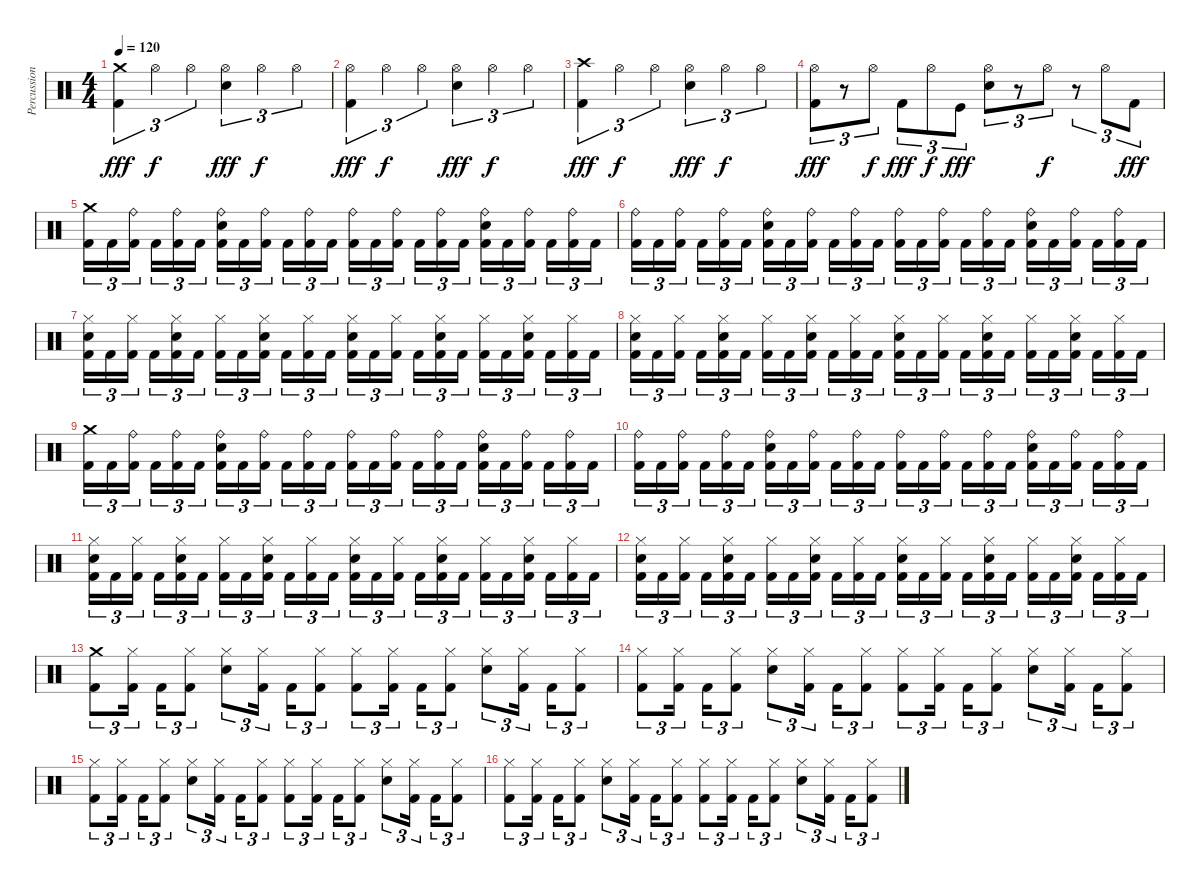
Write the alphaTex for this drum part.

\track ("Percussions" "Percussion") {instrument percussion}
\staff {score}
\articulation defaults
\ts (4 4)
\tempo 120
\clef neutral
\ks c
("Crash medium (hit)" "Kick (hit) 2").4{tu (3 2) dy fff} "Hi-Hat (open)".4{tu (3 2) dy f} "Hi-Hat (open)".4{tu (3 2)} ("Hi-Hat (open)" "Snare (hit) 2").4{tu (3 2) dy fff} "Hi-Hat (open)".4{tu (3 2) dy f} "Hi-Hat (open)".4{tu (3 2)} |
("Hi-Hat (open)" "Kick (hit) 2").4{tu (3 2) dy fff} "Hi-Hat (open)".4{tu (3 2) dy f} "Hi-Hat (open)".4{tu (3 2)} ("Hi-Hat (open)" "Snare (hit) 2").4{tu (3 2) dy fff} "Hi-Hat (open)".4{tu (3 2) dy f} "Hi-Hat (open)".4{tu (3 2)} |
("Crash high (hit)" "Kick (hit) 2").4{tu (3 2) dy fff} "Hi-Hat (open)".4{tu (3 2) dy f} "Hi-Hat (open)".4{tu (3 2)} ("Hi-Hat (open)" "Snare (hit) 2").4{tu (3 2) dy fff} "Hi-Hat (open)".4{tu (3 2) dy f} "Hi-Hat (open)".4{tu (3 2)} |
("Hi-Hat (open)" "Kick (hit) 2").8{tu (3 2) dy fff} r.8{tu (3 2)} "Hi-Hat (open)".8{tu (3 2) dy f} "Kick (hit) 2".8{tu (3 2) dy fff} "Hi-Hat (open)".8{tu (3 2) dy f} "Kick (hit)".8{tu (3 2) dy fff} ("Hi-Hat (open)" "Snare (hit) 2").8{tu (3 2)} r.8{tu (3 2)} "Hi-Hat (open)".8{tu (3 2) dy f} r.8{tu (3 2)} "Hi-Hat (open)".8{tu (3 2)} "Kick (hit) 2".8{tu (3 2) dy fff} |
("Crash medium (hit)" "Kick (hit) 2").16{tu (3 2)} "Kick (hit) 2".16{tu (3 2)} ("Ride (bell)" "Kick (hit) 2").16{tu (3 2) beam splitsecondary} "Kick (hit) 2".16{tu (3 2)} ("Ride (bell)" "Kick (hit) 2").16{tu (3 2)} "Kick (hit) 2".16{tu (3 2)} ("Ride (bell)" "Snare (hit) 2" "Kick (hit) 2").16{tu (3 2)} "Kick (hit) 2".16{tu (3 2)} ("Ride (bell)" "Kick (hit) 2").16{tu (3 2) beam splitsecondary} "Kick (hit) 2".16{tu (3 2)} ("Ride (bell)" "Kick (hit) 2").16{tu (3 2)} "Kick (hit) 2".16{tu (3 2)} ("Ride (bell)" "Kick (hit) 2").16{tu (3 2)} "Kick (hit) 2".16{tu (3 2)} ("Ride (bell)" "Kick (hit) 2").16{tu (3 2) beam splitsecondary} "Kick (hit) 2".16{tu (3 2)} ("Ride (bell)" "Kick (hit) 2").16{tu (3 2)} "Kick (hit) 2".16{tu (3 2)} ("Ride (bell)" "Snare (hit) 2" "Kick (hit) 2").16{tu (3 2)} "Kick (hit) 2".16{tu (3 2)} ("Ride (bell)" "Kick (hit) 2").16{tu (3 2) beam splitsecondary} "Kick (hit) 2".16{tu (3 2)} ("Ride (bell)" "Kick (hit) 2").16{tu (3 2)} "Kick (hit) 2".16{tu (3 2)} |
("Ride (bell)" "Kick (hit) 2").16{tu (3 2)} "Kick (hit) 2".16{tu (3 2)} ("Ride (bell)" "Kick (hit) 2").16{tu (3 2) beam splitsecondary} "Kick (hit) 2".16{tu (3 2)} ("Ride (bell)" "Kick (hit) 2").16{tu (3 2)} "Kick (hit) 2".16{tu (3 2)} ("Ride (bell)" "Snare (hit) 2" "Kick (hit) 2").16{tu (3 2)} "Kick (hit) 2".16{tu (3 2)} ("Ride (bell)" "Kick (hit) 2").16{tu (3 2) beam splitsecondary} "Kick (hit) 2".16{tu (3 2)} ("Ride (bell)" "Kick (hit) 2").16{tu (3 2)} "Kick (hit) 2".16{tu (3 2)} ("Ride (bell)" "Kick (hit) 2").16{tu (3 2)} "Kick (hit) 2".16{tu (3 2)} ("Ride (bell)" "Kick (hit) 2").16{tu (3 2) beam splitsecondary} "Kick (hit) 2".16{tu (3 2)} ("Ride (bell)" "Kick (hit) 2").16{tu (3 2)} "Kick (hit) 2".16{tu (3 2)} ("Ride (bell)" "Snare (hit) 2" "Kick (hit) 2").16{tu (3 2)} "Kick (hit) 2".16{tu (3 2)} ("Ride (bell)" "Kick (hit) 2").16{tu (3 2) beam splitsecondary} "Kick (hit) 2".16{tu (3 2)} ("Ride (bell)" "Kick (hit) 2").16{tu (3 2)} "Kick (hit) 2".16{tu (3 2)} |
("Hi-Hat (closed)" "Snare (hit) 2" "Kick (hit) 2").16{tu (3 2)} "Kick (hit) 2".16{tu (3 2)} ("Hi-Hat (closed)" "Kick (hit) 2").16{tu (3 2) beam splitsecondary} "Kick (hit) 2".16{tu (3 2)} ("Hi-Hat (closed)" "Snare (hit) 2" "Kick (hit) 2").16{tu (3 2)} "Kick (hit) 2".16{tu (3 2)} ("Hi-Hat (closed)" "Kick (hit) 2").16{tu (3 2)} "Kick (hit) 2".16{tu (3 2)} ("Hi-Hat (closed)" "Snare (hit) 2" "Kick (hit) 2").16{tu (3 2) beam splitsecondary} "Kick (hit) 2".16{tu (3 2)} ("Hi-Hat (closed)" "Kick (hit) 2").16{tu (3 2)} "Kick (hit) 2".16{tu (3 2)} ("Hi-Hat (closed)" "Snare (hit) 2" "Kick (hit) 2").16{tu (3 2)} "Kick (hit) 2".16{tu (3 2)} ("Hi-Hat (closed)" "Kick (hit) 2").16{tu (3 2) beam splitsecondary} "Kick (hit) 2".16{tu (3 2)} ("Hi-Hat (closed)" "Snare (hit) 2" "Kick (hit) 2").16{tu (3 2)} "Kick (hit) 2".16{tu (3 2)} ("Hi-Hat (closed)" "Kick (hit) 2").16{tu (3 2)} "Kick (hit) 2".16{tu (3 2)} ("Hi-Hat (closed)" "Snare (hit) 2" "Kick (hit) 2").16{tu (3 2) beam splitsecondary} "Kick (hit) 2".16{tu (3 2)} ("Hi-Hat (closed)" "Kick (hit) 2").16{tu (3 2)} "Kick (hit) 2".16{tu (3 2)} |
("Hi-Hat (closed)" "Snare (hit) 2" "Kick (hit) 2").16{tu (3 2)} "Kick (hit) 2".16{tu (3 2)} ("Hi-Hat (closed)" "Kick (hit) 2").16{tu (3 2) beam splitsecondary} "Kick (hit) 2".16{tu (3 2)} ("Hi-Hat (closed)" "Snare (hit) 2" "Kick (hit) 2").16{tu (3 2)} "Kick (hit) 2".16{tu (3 2)} ("Hi-Hat (closed)" "Kick (hit) 2").16{tu (3 2)} "Kick (hit) 2".16{tu (3 2)} ("Hi-Hat (closed)" "Snare (hit) 2" "Kick (hit) 2").16{tu (3 2) beam splitsecondary} "Kick (hit) 2".16{tu (3 2)} ("Hi-Hat (closed)" "Kick (hit) 2").16{tu (3 2)} "Kick (hit) 2".16{tu (3 2)} ("Hi-Hat (closed)" "Snare (hit) 2" "Kick (hit) 2").16{tu (3 2)} "Kick (hit) 2".16{tu (3 2)} ("Hi-Hat (closed)" "Kick (hit) 2").16{tu (3 2) beam splitsecondary} "Kick (hit) 2".16{tu (3 2)} ("Hi-Hat (closed)" "Snare (hit) 2" "Kick (hit) 2").16{tu (3 2)} "Kick (hit) 2".16{tu (3 2)} ("Hi-Hat (closed)" "Kick (hit) 2").16{tu (3 2)} "Kick (hit) 2".16{tu (3 2)} ("Hi-Hat (closed)" "Snare (hit) 2" "Kick (hit) 2").16{tu (3 2) beam splitsecondary} "Kick (hit) 2".16{tu (3 2)} ("Hi-Hat (closed)" "Kick (hit) 2").16{tu (3 2)} "Kick (hit) 2".16{tu (3 2)} |
("Crash medium (hit)" "Kick (hit) 2").16{tu (3 2)} "Kick (hit) 2".16{tu (3 2)} ("Ride (bell)" "Kick (hit) 2").16{tu (3 2) beam splitsecondary} "Kick (hit) 2".16{tu (3 2)} ("Ride (bell)" "Kick (hit) 2").16{tu (3 2)} "Kick (hit) 2".16{tu (3 2)} ("Ride (bell)" "Snare (hit) 2" "Kick (hit) 2").16{tu (3 2)} "Kick (hit) 2".16{tu (3 2)} ("Ride (bell)" "Kick (hit) 2").16{tu (3 2) beam splitsecondary} "Kick (hit) 2".16{tu (3 2)} ("Ride (bell)" "Kick (hit) 2").16{tu (3 2)} "Kick (hit) 2".16{tu (3 2)} ("Ride (bell)" "Kick (hit) 2").16{tu (3 2)} "Kick (hit) 2".16{tu (3 2)} ("Ride (bell)" "Kick (hit) 2").16{tu (3 2) beam splitsecondary} "Kick (hit) 2".16{tu (3 2)} ("Ride (bell)" "Kick (hit) 2").16{tu (3 2)} "Kick (hit) 2".16{tu (3 2)} ("Ride (bell)" "Snare (hit) 2" "Kick (hit) 2").16{tu (3 2)} "Kick (hit) 2".16{tu (3 2)} ("Ride (bell)" "Kick (hit) 2").16{tu (3 2) beam splitsecondary} "Kick (hit) 2".16{tu (3 2)} ("Ride (bell)" "Kick (hit) 2").16{tu (3 2)} "Kick (hit) 2".16{tu (3 2)} |
("Ride (bell)" "Kick (hit) 2").16{tu (3 2)} "Kick (hit) 2".16{tu (3 2)} ("Ride (bell)" "Kick (hit) 2").16{tu (3 2) beam splitsecondary} "Kick (hit) 2".16{tu (3 2)} ("Ride (bell)" "Kick (hit) 2").16{tu (3 2)} "Kick (hit) 2".16{tu (3 2)} ("Ride (bell)" "Snare (hit) 2" "Kick (hit) 2").16{tu (3 2)} "Kick (hit) 2".16{tu (3 2)} ("Ride (bell)" "Kick (hit) 2").16{tu (3 2) beam splitsecondary} "Kick (hit) 2".16{tu (3 2)} ("Ride (bell)" "Kick (hit) 2").16{tu (3 2)} "Kick (hit) 2".16{tu (3 2)} ("Ride (bell)" "Kick (hit) 2").16{tu (3 2)} "Kick (hit) 2".16{tu (3 2)} ("Ride (bell)" "Kick (hit) 2").16{tu (3 2) beam splitsecondary} "Kick (hit) 2".16{tu (3 2)} ("Ride (bell)" "Kick (hit) 2").16{tu (3 2)} "Kick (hit) 2".16{tu (3 2)} ("Ride (bell)" "Snare (hit) 2" "Kick (hit) 2").16{tu (3 2)} "Kick (hit) 2".16{tu (3 2)} ("Ride (bell)" "Kick (hit) 2").16{tu (3 2) beam splitsecondary} "Kick (hit) 2".16{tu (3 2)} ("Ride (bell)" "Kick (hit) 2").16{tu (3 2)} "Kick (hit) 2".16{tu (3 2)} |
("Hi-Hat (closed)" "Snare (hit) 2" "Kick (hit) 2").16{tu (3 2)} "Kick (hit) 2".16{tu (3 2)} ("Hi-Hat (closed)" "Kick (hit) 2").16{tu (3 2) beam splitsecondary} "Kick (hit) 2".16{tu (3 2)} ("Hi-Hat (closed)" "Snare (hit) 2" "Kick (hit) 2").16{tu (3 2)} "Kick (hit) 2".16{tu (3 2)} ("Hi-Hat (closed)" "Kick (hit) 2").16{tu (3 2)} "Kick (hit) 2".16{tu (3 2)} ("Hi-Hat (closed)" "Snare (hit) 2" "Kick (hit) 2").16{tu (3 2) beam splitsecondary} "Kick (hit) 2".16{tu (3 2)} ("Hi-Hat (closed)" "Kick (hit) 2").16{tu (3 2)} "Kick (hit) 2".16{tu (3 2)} ("Hi-Hat (closed)" "Snare (hit) 2" "Kick (hit) 2").16{tu (3 2)} "Kick (hit) 2".16{tu (3 2)} ("Hi-Hat (closed)" "Kick (hit) 2").16{tu (3 2) beam splitsecondary} "Kick (hit) 2".16{tu (3 2)} ("Hi-Hat (closed)" "Snare (hit) 2" "Kick (hit) 2").16{tu (3 2)} "Kick (hit) 2".16{tu (3 2)} ("Hi-Hat (closed)" "Kick (hit) 2").16{tu (3 2)} "Kick (hit) 2".16{tu (3 2)} ("Hi-Hat (closed)" "Snare (hit) 2" "Kick (hit) 2").16{tu (3 2) beam splitsecondary} "Kick (hit) 2".16{tu (3 2)} ("Hi-Hat (closed)" "Kick (hit) 2").16{tu (3 2)} "Kick (hit) 2".16{tu (3 2)} |
("Hi-Hat (closed)" "Snare (hit) 2" "Kick (hit) 2").16{tu (3 2)} "Kick (hit) 2".16{tu (3 2)} ("Hi-Hat (closed)" "Kick (hit) 2").16{tu (3 2) beam splitsecondary} "Kick (hit) 2".16{tu (3 2)} ("Hi-Hat (closed)" "Snare (hit) 2" "Kick (hit) 2").16{tu (3 2)} "Kick (hit) 2".16{tu (3 2)} ("Hi-Hat (closed)" "Kick (hit) 2").16{tu (3 2)} "Kick (hit) 2".16{tu (3 2)} ("Hi-Hat (closed)" "Snare (hit) 2" "Kick (hit) 2").16{tu (3 2) beam splitsecondary} "Kick (hit) 2".16{tu (3 2)} ("Hi-Hat (closed)" "Kick (hit) 2").16{tu (3 2)} "Kick (hit) 2".16{tu (3 2)} ("Hi-Hat (closed)" "Snare (hit) 2" "Kick (hit) 2").16{tu (3 2)} "Kick (hit) 2".16{tu (3 2)} ("Hi-Hat (closed)" "Kick (hit) 2").16{tu (3 2) beam splitsecondary} "Kick (hit) 2".16{tu (3 2)} ("Hi-Hat (closed)" "Snare (hit) 2" "Kick (hit) 2").16{tu (3 2)} "Kick (hit) 2".16{tu (3 2)} ("Hi-Hat (closed)" "Kick (hit) 2").16{tu (3 2)} "Kick (hit) 2".16{tu (3 2)} ("Hi-Hat (closed)" "Snare (hit) 2" "Kick (hit) 2").16{tu (3 2) beam splitsecondary} "Kick (hit) 2".16{tu (3 2)} ("Hi-Hat (closed)" "Kick (hit) 2").16{tu (3 2)} "Kick (hit) 2".16{tu (3 2)} |
("Crash medium (hit)" "Kick (hit) 2").8{tu (3 2)} ("Hi-Hat (closed)" "Kick (hit) 2").16{tu (3 2) beam splitsecondary} "Kick (hit) 2".16{tu (3 2)} ("Hi-Hat (closed)" "Kick (hit) 2").8{tu (3 2)} ("Hi-Hat (closed)" "Snare (hit) 2").8{tu (3 2)} ("Hi-Hat (closed)" "Kick (hit) 2").16{tu (3 2) beam splitsecondary} "Kick (hit) 2".16{tu (3 2)} ("Hi-Hat (closed)" "Kick (hit) 2").8{tu (3 2)} ("Hi-Hat (closed)" "Kick (hit) 2").8{tu (3 2)} ("Hi-Hat (closed)" "Kick (hit) 2").16{tu (3 2) beam splitsecondary} "Kick (hit) 2".16{tu (3 2)} ("Hi-Hat (closed)" "Kick (hit) 2").8{tu (3 2)} ("Hi-Hat (closed)" "Snare (hit) 2").8{tu (3 2)} ("Hi-Hat (closed)" "Kick (hit) 2").16{tu (3 2) beam splitsecondary} "Kick (hit) 2".16{tu (3 2)} ("Hi-Hat (closed)" "Kick (hit) 2").8{tu (3 2)} |
("Hi-Hat (closed)" "Kick (hit) 2").8{tu (3 2)} ("Hi-Hat (closed)" "Kick (hit) 2").16{tu (3 2) beam splitsecondary} "Kick (hit) 2".16{tu (3 2)} ("Hi-Hat (closed)" "Kick (hit) 2").8{tu (3 2)} ("Hi-Hat (closed)" "Snare (hit) 2").8{tu (3 2)} ("Hi-Hat (closed)" "Kick (hit) 2").16{tu (3 2) beam splitsecondary} "Kick (hit) 2".16{tu (3 2)} ("Hi-Hat (closed)" "Kick (hit) 2").8{tu (3 2)} ("Hi-Hat (closed)" "Kick (hit) 2").8{tu (3 2)} ("Hi-Hat (closed)" "Kick (hit) 2").16{tu (3 2) beam splitsecondary} "Kick (hit) 2".16{tu (3 2)} ("Hi-Hat (closed)" "Kick (hit) 2").8{tu (3 2)} ("Hi-Hat (closed)" "Snare (hit) 2").8{tu (3 2)} ("Hi-Hat (closed)" "Kick (hit) 2").16{tu (3 2) beam splitsecondary} "Kick (hit) 2".16{tu (3 2)} ("Hi-Hat (closed)" "Kick (hit) 2").8{tu (3 2)} |
("Hi-Hat (closed)" "Kick (hit) 2").8{tu (3 2)} ("Hi-Hat (closed)" "Kick (hit) 2").16{tu (3 2) beam splitsecondary} "Kick (hit) 2".16{tu (3 2)} ("Hi-Hat (closed)" "Kick (hit) 2").8{tu (3 2)} ("Hi-Hat (closed)" "Snare (hit) 2").8{tu (3 2)} ("Hi-Hat (closed)" "Kick (hit) 2").16{tu (3 2) beam splitsecondary} "Kick (hit) 2".16{tu (3 2)} ("Hi-Hat (closed)" "Kick (hit) 2").8{tu (3 2)} ("Hi-Hat (closed)" "Kick (hit) 2").8{tu (3 2)} ("Hi-Hat (closed)" "Kick (hit) 2").16{tu (3 2) beam splitsecondary} "Kick (hit) 2".16{tu (3 2)} ("Hi-Hat (closed)" "Kick (hit) 2").8{tu (3 2)} ("Hi-Hat (closed)" "Snare (hit) 2").8{tu (3 2)} ("Hi-Hat (closed)" "Kick (hit) 2").16{tu (3 2) beam splitsecondary} "Kick (hit) 2".16{tu (3 2)} ("Hi-Hat (closed)" "Kick (hit) 2").8{tu (3 2)} |
("Hi-Hat (closed)" "Kick (hit) 2").8{tu (3 2)} ("Hi-Hat (closed)" "Kick (hit) 2").16{tu (3 2) beam splitsecondary} "Kick (hit) 2".16{tu (3 2)} ("Hi-Hat (closed)" "Kick (hit) 2").8{tu (3 2)} ("Hi-Hat (closed)" "Snare (hit) 2").8{tu (3 2)} ("Hi-Hat (closed)" "Kick (hit) 2").16{tu (3 2) beam splitsecondary} "Kick (hit) 2".16{tu (3 2)} ("Hi-Hat (closed)" "Kick (hit) 2").8{tu (3 2)} ("Hi-Hat (closed)" "Kick (hit) 2").8{tu (3 2)} ("Hi-Hat (closed)" "Kick (hit) 2").16{tu (3 2) beam splitsecondary} "Kick (hit) 2".16{tu (3 2)} ("Hi-Hat (closed)" "Kick (hit) 2").8{tu (3 2)} ("Hi-Hat (closed)" "Snare (hit) 2").8{tu (3 2)} ("Hi-Hat (closed)" "Kick (hit) 2").16{tu (3 2) beam splitsecondary} "Kick (hit) 2".16{tu (3 2)} ("Hi-Hat (closed)" "Kick (hit) 2").8{tu (3 2)}
